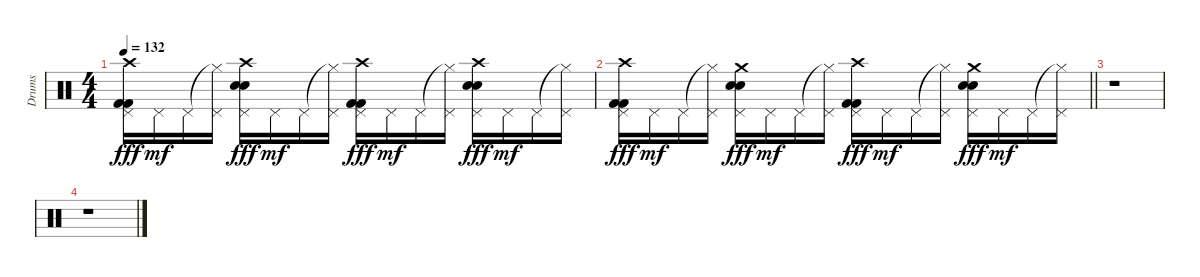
\track ("Drums" "Drums") {instrument percussion}
\staff {score}
\articulation defaults
\ts (4 4)
\tempo 132
\clef neutral
\ks c
("Crash high (hit)" "Pedal Hi-Hat (hit)" "Kick (hit) 2" "Kick (hit) 2").16{dy fff} "Pedal Hi-Hat (hit)".16{dy mf} "Pedal Hi-Hat (hit)".16 ("Hi-Hat (closed)"{t} "Pedal Hi-Hat (hit)").16 ("Crash high (hit)" "Pedal Hi-Hat (hit)" "Electric Snare (hit)" "Electric Snare (hit)").16{dy fff} "Pedal Hi-Hat (hit)".16{dy mf} "Pedal Hi-Hat (hit)".16 ("Hi-Hat (closed)"{t} "Pedal Hi-Hat (hit)").16 ("Crash high (hit)" "Pedal Hi-Hat (hit)" "Kick (hit) 2" "Kick (hit) 2").16{dy fff} "Pedal Hi-Hat (hit)".16{dy mf} "Pedal Hi-Hat (hit)".16 ("Hi-Hat (closed)"{t} "Pedal Hi-Hat (hit)").16 ("Crash high (hit)" "Pedal Hi-Hat (hit)" "Electric Snare (hit)" "Electric Snare (hit)").16{dy fff} "Pedal Hi-Hat (hit)".16{dy mf} "Pedal Hi-Hat (hit)".16 ("Hi-Hat (closed)"{t} "Pedal Hi-Hat (hit)").16 |
\barLineRight lightlight
("Crash high (hit)" "Pedal Hi-Hat (hit)" "Kick (hit) 2" "Kick (hit) 2").16{dy fff} "Pedal Hi-Hat (hit)".16{dy mf} "Pedal Hi-Hat (hit)".16 ("Hi-Hat (closed)"{t} "Pedal Hi-Hat (hit)").16 ("Crash medium (hit)" "Pedal Hi-Hat (hit)" "Electric Snare (hit)" "Electric Snare (hit)").16{dy fff} "Pedal Hi-Hat (hit)".16{dy mf} "Pedal Hi-Hat (hit)".16 ("Hi-Hat (closed)"{t} "Pedal Hi-Hat (hit)").16 ("Crash high (hit)" "Pedal Hi-Hat (hit)" "Kick (hit) 2" "Kick (hit) 2").16{dy fff} "Pedal Hi-Hat (hit)".16{dy mf} "Pedal Hi-Hat (hit)".16 ("Hi-Hat (closed)"{t} "Pedal Hi-Hat (hit)").16 ("Crash medium (hit)" "Pedal Hi-Hat (hit)" "Electric Snare (hit)" "Electric Snare (hit)").16{dy fff} "Pedal Hi-Hat (hit)".16{dy mf} "Pedal Hi-Hat (hit)".16 ("Hi-Hat (closed)"{t} "Pedal Hi-Hat (hit)").16 |
r.1 |
r.1
